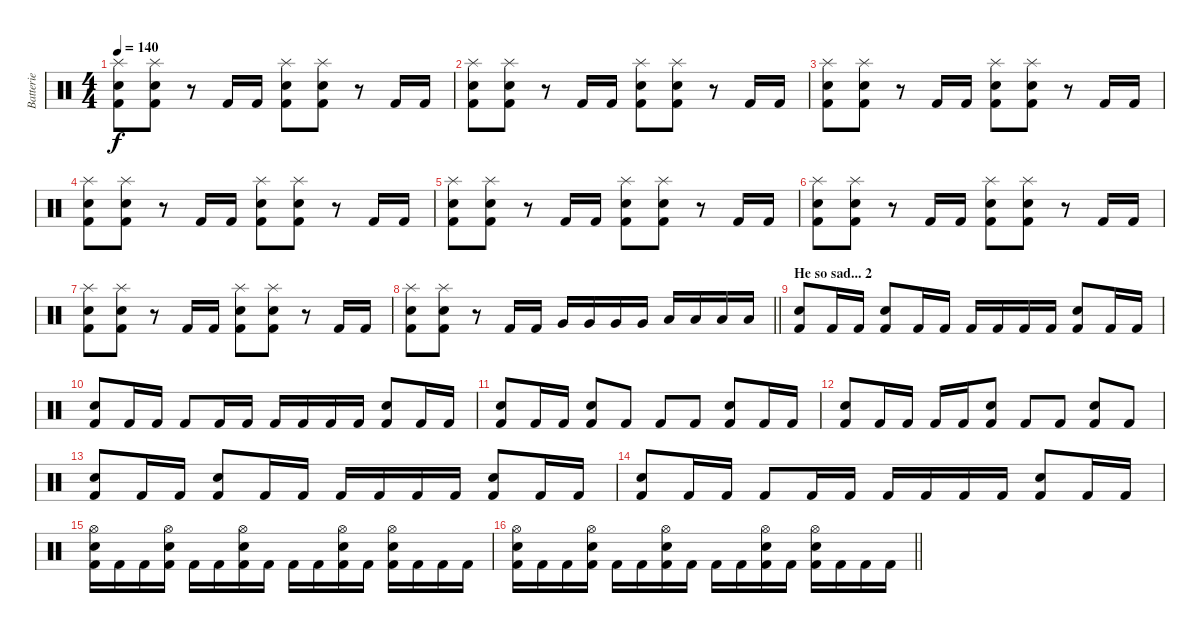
\track ("Batterie" "Batterie") {instrument percussion}
\staff {score}
\articulation defaults
\ts (4 4)
\tempo 140
\clef neutral
\ks c
("Splash (hit)" "Electric Snare (hit)" "Kick (hit) 2").8{dy f} ("Splash (hit)" "Electric Snare (hit)" "Kick (hit) 2").8 r.8 "Kick (hit) 2".16 "Kick (hit) 2".16 ("Splash (hit)" "Electric Snare (hit)" "Kick (hit) 2").8 ("Splash (hit)" "Electric Snare (hit)" "Kick (hit) 2").8 r.8 "Kick (hit) 2".16 "Kick (hit) 2".16 |
("Splash (hit)" "Electric Snare (hit)" "Kick (hit) 2").8 ("Splash (hit)" "Electric Snare (hit)" "Kick (hit) 2").8 r.8 "Kick (hit) 2".16 "Kick (hit) 2".16 ("Splash (hit)" "Electric Snare (hit)" "Kick (hit) 2").8 ("Splash (hit)" "Electric Snare (hit)" "Kick (hit) 2").8 r.8 "Kick (hit) 2".16 "Kick (hit) 2".16 |
("Splash (hit)" "Electric Snare (hit)" "Kick (hit) 2").8 ("Splash (hit)" "Electric Snare (hit)" "Kick (hit) 2").8 r.8 "Kick (hit) 2".16 "Kick (hit) 2".16 ("Splash (hit)" "Electric Snare (hit)" "Kick (hit) 2").8 ("Splash (hit)" "Electric Snare (hit)" "Kick (hit) 2").8 r.8 "Kick (hit) 2".16 "Kick (hit) 2".16 |
("Splash (hit)" "Electric Snare (hit)" "Kick (hit) 2").8 ("Splash (hit)" "Electric Snare (hit)" "Kick (hit) 2").8 r.8 "Kick (hit) 2".16 "Kick (hit) 2".16 ("Splash (hit)" "Electric Snare (hit)" "Kick (hit) 2").8 ("Splash (hit)" "Electric Snare (hit)" "Kick (hit) 2").8 r.8 "Kick (hit) 2".16 "Kick (hit) 2".16 |
("Splash (hit)" "Electric Snare (hit)" "Kick (hit) 2").8 ("Splash (hit)" "Electric Snare (hit)" "Kick (hit) 2").8 r.8 "Kick (hit) 2".16 "Kick (hit) 2".16 ("Splash (hit)" "Electric Snare (hit)" "Kick (hit) 2").8 ("Splash (hit)" "Electric Snare (hit)" "Kick (hit) 2").8 r.8 "Kick (hit) 2".16 "Kick (hit) 2".16 |
("Splash (hit)" "Electric Snare (hit)" "Kick (hit) 2").8 ("Splash (hit)" "Electric Snare (hit)" "Kick (hit) 2").8 r.8 "Kick (hit) 2".16 "Kick (hit) 2".16 ("Splash (hit)" "Electric Snare (hit)" "Kick (hit) 2").8 ("Splash (hit)" "Electric Snare (hit)" "Kick (hit) 2").8 r.8 "Kick (hit) 2".16 "Kick (hit) 2".16 |
("Splash (hit)" "Electric Snare (hit)" "Kick (hit) 2").8 ("Splash (hit)" "Electric Snare (hit)" "Kick (hit) 2").8 r.8 "Kick (hit) 2".16 "Kick (hit) 2".16 ("Splash (hit)" "Electric Snare (hit)" "Kick (hit) 2").8 ("Splash (hit)" "Electric Snare (hit)" "Kick (hit) 2").8 r.8 "Kick (hit) 2".16 "Kick (hit) 2".16 |
\barLineRight lightlight
("Splash (hit)" "Electric Snare (hit)" "Kick (hit) 2").8 ("Splash (hit)" "Electric Snare (hit)" "Kick (hit) 2").8 r.8 "Kick (hit) 2".16 "Kick (hit) 2".16 "Very Low Tom (hit)".16 "Very Low Tom (hit)".16 "Very Low Tom (hit)".16 "Very Low Tom (hit)".16 "Low Floor Tom (hit)".16 "Low Floor Tom (hit)".16 "Low Floor Tom (hit)".16 "Low Floor Tom (hit)".16 |
\section ("" "He so sad... 2")
("Electric Snare (hit)" "Kick (hit) 2").8 "Kick (hit) 2".16 "Kick (hit) 2".16 ("Electric Snare (hit)" "Kick (hit) 2").8 "Kick (hit) 2".16 "Kick (hit) 2".16 "Kick (hit) 2".16 "Kick (hit) 2".16 "Kick (hit) 2".16 "Kick (hit) 2".16 ("Electric Snare (hit)" "Kick (hit) 2").8 "Kick (hit) 2".16 "Kick (hit) 2".16 |
("Electric Snare (hit)" "Kick (hit) 2").8 "Kick (hit) 2".16 "Kick (hit) 2".16 "Kick (hit) 2".8 "Kick (hit) 2".16 "Kick (hit) 2".16 "Kick (hit) 2".16 "Kick (hit) 2".16 "Kick (hit) 2".16 "Kick (hit) 2".16 ("Electric Snare (hit)" "Kick (hit) 2").8 "Kick (hit) 2".16 "Kick (hit) 2".16 |
("Electric Snare (hit)" "Kick (hit) 2").8 "Kick (hit) 2".16 "Kick (hit) 2".16 ("Electric Snare (hit)" "Kick (hit) 2").8 "Kick (hit) 2".8 "Kick (hit) 2".8 "Kick (hit) 2".8 ("Electric Snare (hit)" "Kick (hit) 2").8 "Kick (hit) 2".16 "Kick (hit) 2".16 |
("Electric Snare (hit)" "Kick (hit) 2").8 "Kick (hit) 2".16 "Kick (hit) 2".16 "Kick (hit) 2".16 "Kick (hit) 2".16 ("Electric Snare (hit)" "Kick (hit) 2").8 "Kick (hit) 2".8 "Kick (hit) 2".8 ("Electric Snare (hit)" "Kick (hit) 2").8 "Kick (hit) 2".8 |
("Electric Snare (hit)" "Kick (hit) 2").8 "Kick (hit) 2".16 "Kick (hit) 2".16 ("Electric Snare (hit)" "Kick (hit) 2").8 "Kick (hit) 2".16 "Kick (hit) 2".16 "Kick (hit) 2".16 "Kick (hit) 2".16 "Kick (hit) 2".16 "Kick (hit) 2".16 ("Electric Snare (hit)" "Kick (hit) 2").8 "Kick (hit) 2".16 "Kick (hit) 2".16 |
("Electric Snare (hit)" "Kick (hit) 2").8 "Kick (hit) 2".16 "Kick (hit) 2".16 "Kick (hit) 2".8 "Kick (hit) 2".16 "Kick (hit) 2".16 "Kick (hit) 2".16 "Kick (hit) 2".16 "Kick (hit) 2".16 "Kick (hit) 2".16 ("Electric Snare (hit)" "Kick (hit) 2").8 "Kick (hit) 2".16 "Kick (hit) 2".16 |
("Hi-Hat (open)" "Electric Snare (hit)" "Kick (hit) 2").16 "Kick (hit) 2".16 "Kick (hit) 2".16 ("Hi-Hat (open)" "Electric Snare (hit)" "Kick (hit) 2").16 "Kick (hit) 2".16 "Kick (hit) 2".16 ("Hi-Hat (open)" "Electric Snare (hit)" "Kick (hit) 2").16 "Kick (hit) 2".16 "Kick (hit) 2".16 "Kick (hit) 2".16 ("Hi-Hat (open)" "Electric Snare (hit)" "Kick (hit) 2").16 "Kick (hit) 2".16 ("Hi-Hat (open)" "Electric Snare (hit)" "Kick (hit) 2").16 "Kick (hit) 2".16 "Kick (hit) 2".16 "Kick (hit) 2".16 |
\barLineRight lightlight
("Hi-Hat (open)" "Electric Snare (hit)" "Kick (hit) 2").16 "Kick (hit) 2".16 "Kick (hit) 2".16 ("Hi-Hat (open)" "Electric Snare (hit)" "Kick (hit) 2").16 "Kick (hit) 2".16 "Kick (hit) 2".16 ("Hi-Hat (open)" "Electric Snare (hit)" "Kick (hit) 2").16 "Kick (hit) 2".16 "Kick (hit) 2".16 "Kick (hit) 2".16 ("Hi-Hat (open)" "Electric Snare (hit)" "Kick (hit) 2").16 "Kick (hit) 2".16 ("Hi-Hat (open)" "Electric Snare (hit)" "Kick (hit) 2").16 "Kick (hit) 2".16 "Kick (hit) 2".16 "Kick (hit) 2".16
